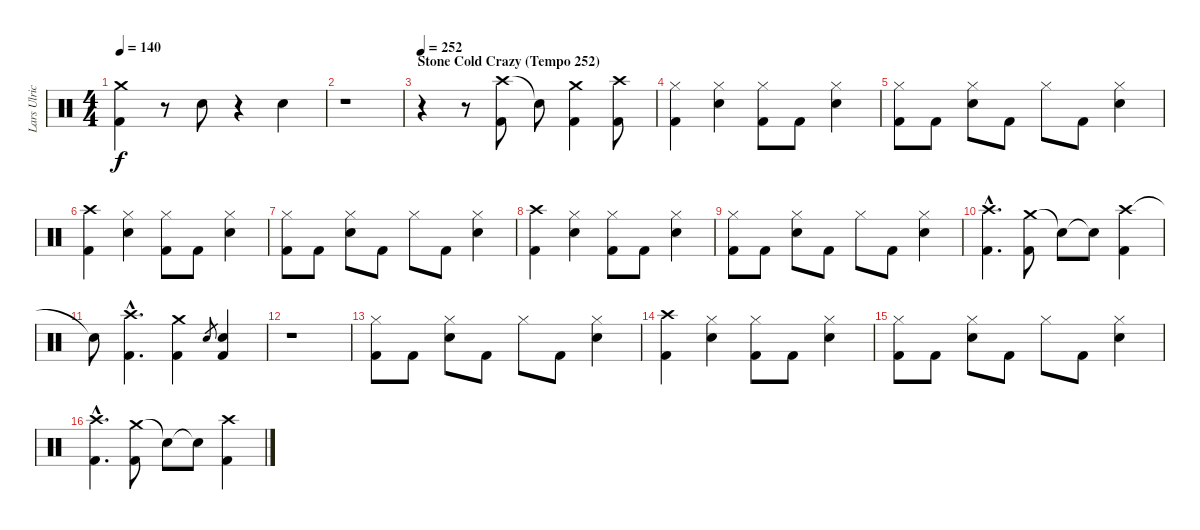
\track ("Lars Ulrich (Drums)" "Lars Ulric") {instrument percussion}
\staff {score}
\articulation defaults
\ts (4 4)
\tempo 140
\clef neutral
\ks c
("Kick (hit) 2" "Crash medium (hit)").4{dy f} r.8 "Snare (hit) 2".8 r.4 "Snare (hit) 2".4 |
r.1 |
\section ("" "Stone Cold Crazy (Tempo 252)")
\tempo 252
r.4 r.8 ("Crash high (hit)" "Kick (hit) 2").8 "Snare (hit)"{t}.8 ("Crash medium (hit)" "Kick (hit) 2").4 ("Crash high (hit)" "Kick (hit) 2").8 |
("Hi-Hat (closed)" "Kick (hit) 2").4 ("Hi-Hat (closed)" "Electric Snare (hit)").4 ("Hi-Hat (closed)" "Kick (hit) 2").8 "Kick (hit) 2".8 ("Hi-Hat (closed)" "Electric Snare (hit)").4 |
("Hi-Hat (closed)" "Kick (hit) 2").8 "Kick (hit) 2".8 ("Hi-Hat (closed)" "Electric Snare (hit)").8 "Kick (hit) 2".8 "Hi-Hat (closed)".8 "Kick (hit) 2".8 ("Hi-Hat (closed)" "Electric Snare (hit)").4 |
("Crash high (hit)" "Kick (hit) 2").4 ("Hi-Hat (closed)" "Electric Snare (hit)").4 ("Hi-Hat (closed)" "Kick (hit) 2").8 "Kick (hit) 2".8 ("Hi-Hat (closed)" "Electric Snare (hit)").4 |
("Hi-Hat (closed)" "Kick (hit) 2").8 "Kick (hit) 2".8 ("Hi-Hat (closed)" "Electric Snare (hit)").8 "Kick (hit) 2".8 "Hi-Hat (closed)".8 "Kick (hit) 2".8 ("Hi-Hat (closed)" "Electric Snare (hit)").4 |
("Crash high (hit)" "Kick (hit) 2").4 ("Hi-Hat (closed)" "Electric Snare (hit)").4 ("Hi-Hat (closed)" "Kick (hit) 2").8 "Kick (hit) 2".8 ("Hi-Hat (closed)" "Electric Snare (hit)").4 |
("Hi-Hat (closed)" "Kick (hit) 2").8 "Kick (hit) 2".8 ("Hi-Hat (closed)" "Electric Snare (hit)").8 "Kick (hit) 2".8 "Hi-Hat (closed)".8 "Kick (hit) 2".8 ("Hi-Hat (closed)" "Electric Snare (hit)").4 |
("Crash high (hit)"{hac} "Kick (hit) 2"{hac}).4{d} ("Crash medium (hit)" "Kick (hit) 2").8 "Snare (hit)"{t}.8 "Snare (hit)"{t}.8 ("Crash high (hit)" "Kick (hit) 2").4 |
"Snare (hit)"{t}.8 ("Crash high (hit)"{hac} "Kick (hit) 2"{hac}).4{d} ("Crash medium (hit)" "Kick (hit) 2").4 "Electric Snare (hit)".8{gr} ("Electric Snare (hit)" "Kick (hit) 2").4 |
r.1 |
("Hi-Hat (closed)" "Kick (hit) 2").8 "Kick (hit) 2".8 ("Hi-Hat (closed)" "Electric Snare (hit)").8 "Kick (hit) 2".8 "Hi-Hat (closed)".8 "Kick (hit) 2".8 ("Hi-Hat (closed)" "Electric Snare (hit)").4 |
("Crash high (hit)" "Kick (hit) 2").4 ("Hi-Hat (closed)" "Electric Snare (hit)").4 ("Hi-Hat (closed)" "Kick (hit) 2").8 "Kick (hit) 2".8 ("Hi-Hat (closed)" "Electric Snare (hit)").4 |
("Hi-Hat (closed)" "Kick (hit) 2").8 "Kick (hit) 2".8 ("Hi-Hat (closed)" "Electric Snare (hit)").8 "Kick (hit) 2".8 "Hi-Hat (closed)".8 "Kick (hit) 2".8 ("Hi-Hat (closed)" "Electric Snare (hit)").4 |
("Crash high (hit)"{hac} "Kick (hit) 2"{hac}).4{d} ("Crash medium (hit)" "Kick (hit) 2").8 "Snare (hit)"{t}.8 "Snare (hit)"{t}.8 ("Crash high (hit)" "Kick (hit) 2").4
